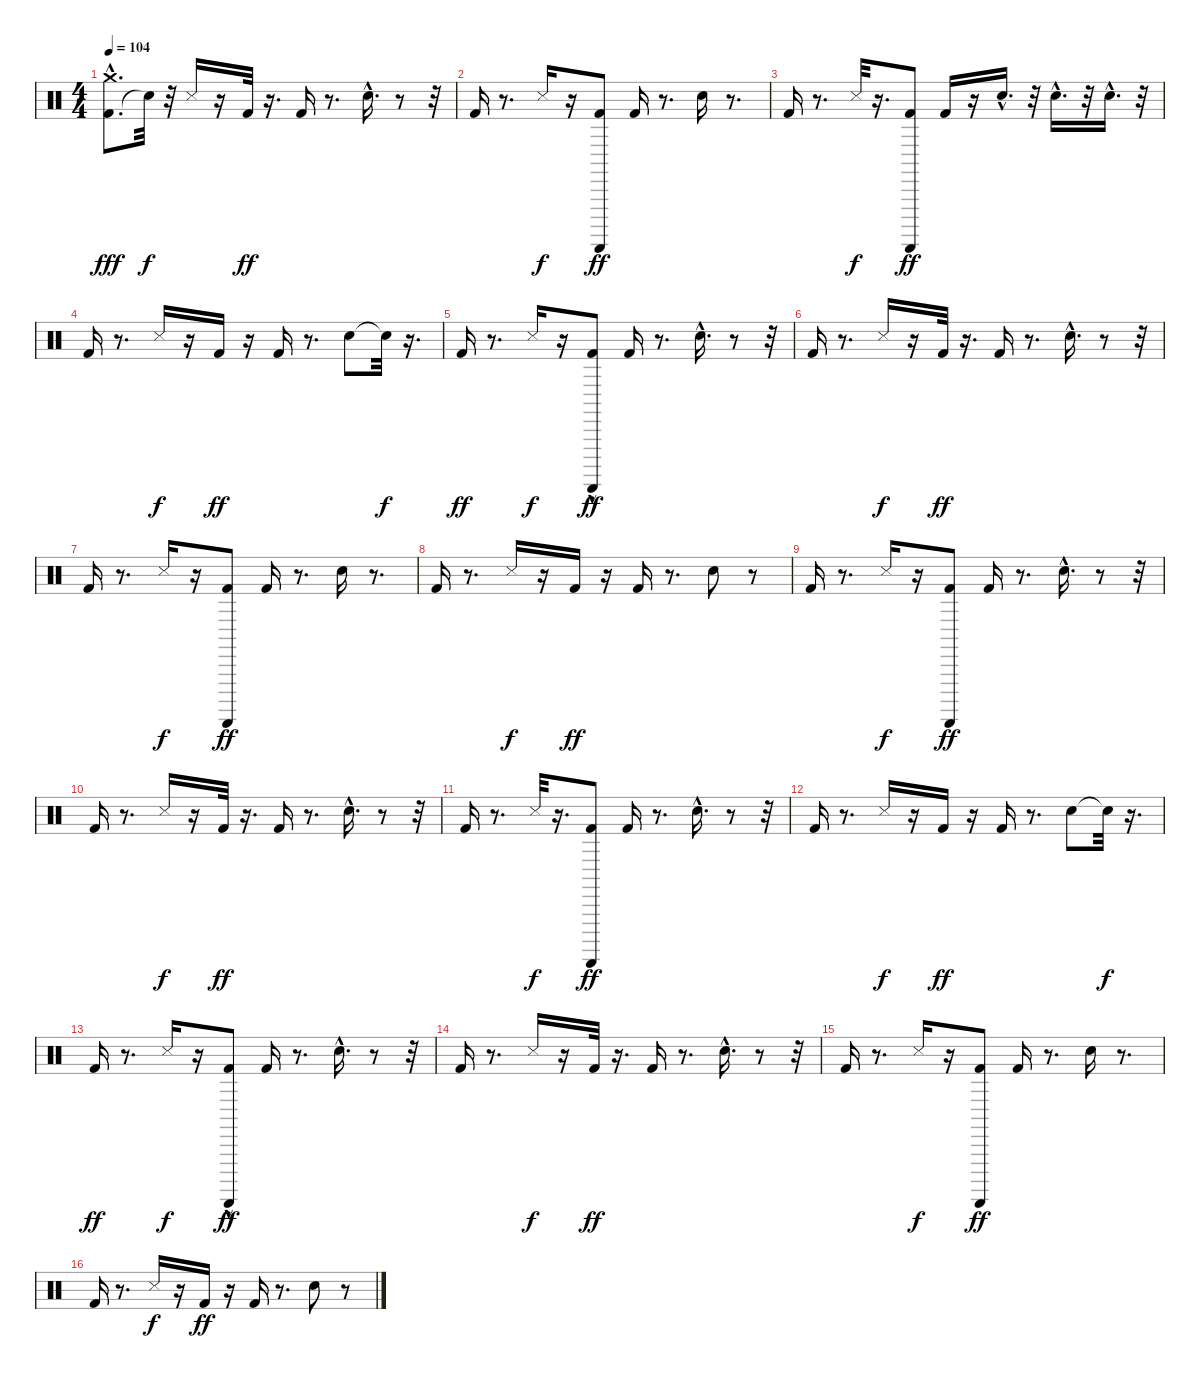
\track "" {instrument percussion}
\staff {score}
\articulation defaults
\ts (4 4)
\tempo 104
\clef neutral
\ks c
("Kick (hit) 2" "Crash medium (hit)"{hac}).8{d dy fff} "Snare (hit)"{t}.32{dy f} r.32 "Snare (side stick) 3".16 r.16 "Kick (hit) 2".32{dy ff} r.16{d} "Kick (hit) 2".16 r.8{d} "Snare (hit) 2"{hac}.16{d} r.8 r.32 |
"Kick (hit) 2".16 r.8{d} "Snare (side stick) 3".16{dy f} r.16 ("Kick (hit) 2" "Guiro (scrap-return)").8{dy ff} "Kick (hit) 2".16 r.8{d} "Snare (hit) 2".16 r.8{d} |
"Kick (hit) 2".16 r.8{d} "Snare (side stick) 3".32{dy f} r.16{d} ("Kick (hit) 2" "Guiro (scrap-return)").8{dy ff} "Kick (hit) 2".16 r.16 "Snare (hit) 2"{hac}.16{d} r.32 "Snare (hit) 2"{hac}.16{d} r.32 "Snare (hit) 2"{hac}.16{d} r.32 |
"Kick (hit) 2".16 r.8{d} "Snare (side stick) 3".16{dy f} r.16 "Kick (hit) 2".16{dy ff} r.16 "Kick (hit) 2".16 r.8{d} "Snare (hit) 2".8 "Snare (hit)"{t}.32{dy f} r.16{d} |
"Kick (hit) 2".16{dy ff} r.8{d} "Snare (side stick) 3".16{dy f} r.16 ("Kick (hit) 2" "Guiro (scrap-return)"{hac}).8{dy ff} "Kick (hit) 2".16 r.8{d} "Snare (hit) 2"{hac}.16{d} r.8 r.32 |
"Kick (hit) 2".16 r.8{d} "Snare (side stick) 3".16{dy f} r.16 "Kick (hit) 2".32{dy ff} r.16{d} "Kick (hit) 2".16 r.8{d} "Snare (hit) 2"{hac}.16{d} r.8 r.32 |
"Kick (hit) 2".16 r.8{d} "Snare (side stick) 3".16{dy f} r.16 ("Kick (hit) 2" "Guiro (scrap-return)").8{dy ff} "Kick (hit) 2".16 r.8{d} "Snare (hit) 2".16 r.8{d} |
"Kick (hit) 2".16 r.8{d} "Snare (side stick) 3".16{dy f} r.16 "Kick (hit) 2".16{dy ff} r.16 "Kick (hit) 2".16 r.8{d} "Snare (hit) 2".8 r.8 |
"Kick (hit) 2".16 r.8{d} "Snare (side stick) 3".16{dy f} r.16 ("Kick (hit) 2" "Guiro (scrap-return)").8{dy ff} "Kick (hit) 2".16 r.8{d} "Snare (hit) 2"{hac}.16{d} r.8 r.32 |
"Kick (hit) 2".16 r.8{d} "Snare (side stick) 3".16{dy f} r.16 "Kick (hit) 2".32{dy ff} r.16{d} "Kick (hit) 2".16 r.8{d} "Snare (hit) 2"{hac}.16{d} r.8 r.32 |
"Kick (hit) 2".16 r.8{d} "Snare (side stick) 3".32{dy f} r.16{d} ("Kick (hit) 2" "Guiro (scrap-return)").8{dy ff} "Kick (hit) 2".16 r.8{d} "Snare (hit) 2"{hac}.16{d} r.8 r.32 |
"Kick (hit) 2".16 r.8{d} "Snare (side stick) 3".16{dy f} r.16 "Kick (hit) 2".16{dy ff} r.16 "Kick (hit) 2".16 r.8{d} "Snare (hit) 2".8 "Snare (hit)"{t}.32{dy f} r.16{d} |
"Kick (hit) 2".16{dy ff} r.8{d} "Snare (side stick) 3".16{dy f} r.16 ("Guiro (scrap-return)"{hac} "Kick (hit) 2").8{dy ff} "Kick (hit) 2".16 r.8{d} "Snare (hit) 2"{hac}.16{d} r.8 r.32 |
"Kick (hit) 2".16 r.8{d} "Snare (side stick) 3".16{dy f} r.16 "Kick (hit) 2".32{dy ff} r.16{d} "Kick (hit) 2".16 r.8{d} "Snare (hit) 2"{hac}.16{d} r.8 r.32 |
"Kick (hit) 2".16 r.8{d} "Snare (side stick) 3".16{dy f} r.16 ("Guiro (scrap-return)" "Kick (hit) 2").8{dy ff} "Kick (hit) 2".16 r.8{d} "Snare (hit) 2".16 r.8{d} |
"Kick (hit) 2".16 r.8{d} "Snare (side stick) 3".16{dy f} r.16 "Kick (hit) 2".16{dy ff} r.16 "Kick (hit) 2".16 r.8{d} "Snare (hit) 2".8 r.8
